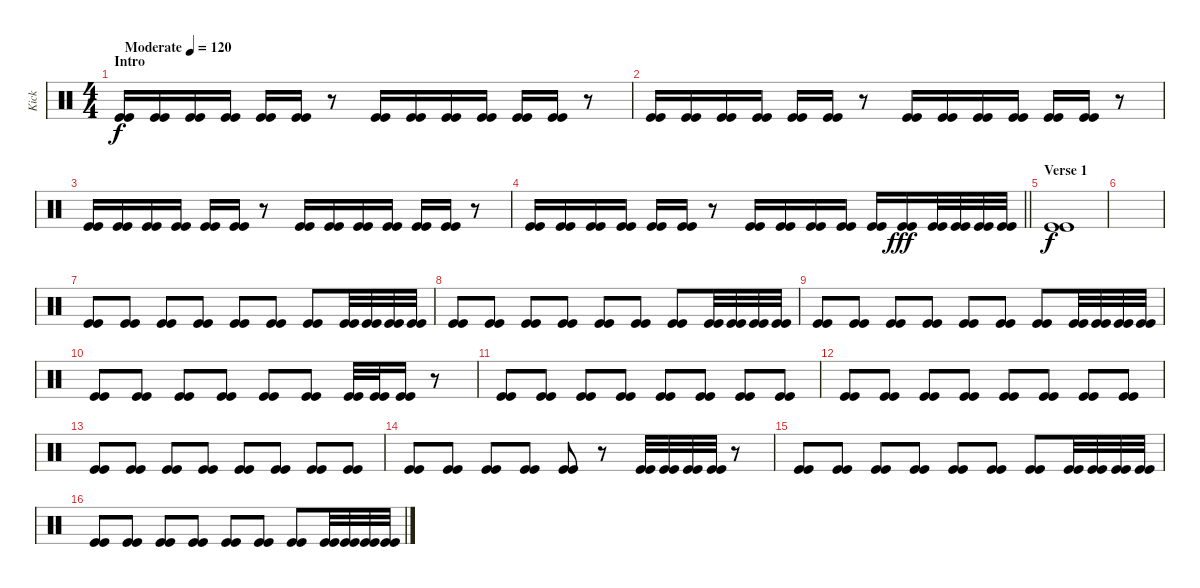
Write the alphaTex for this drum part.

\track ("Kick" "Kick") {instrument percussion}
\staff {score}
\articulation defaults
\ts (4 4)
\section ("" "Intro")
\tempo (120 "Moderate")
\clef neutral
\ks c
("Kick (hit)" "Kick (hit)").16{dy f} ("Kick (hit)" "Kick (hit)").16 ("Kick (hit)" "Kick (hit)").16 ("Kick (hit)" "Kick (hit)").16 ("Kick (hit)" "Kick (hit)").16 ("Kick (hit)" "Kick (hit)").16 r.8 ("Kick (hit)" "Kick (hit)").16 ("Kick (hit)" "Kick (hit)").16 ("Kick (hit)" "Kick (hit)").16 ("Kick (hit)" "Kick (hit)").16 ("Kick (hit)" "Kick (hit)").16 ("Kick (hit)" "Kick (hit)").16 r.8 |
("Kick (hit)" "Kick (hit)").16 ("Kick (hit)" "Kick (hit)").16 ("Kick (hit)" "Kick (hit)").16 ("Kick (hit)" "Kick (hit)").16 ("Kick (hit)" "Kick (hit)").16 ("Kick (hit)" "Kick (hit)").16 r.8 ("Kick (hit)" "Kick (hit)").16 ("Kick (hit)" "Kick (hit)").16 ("Kick (hit)" "Kick (hit)").16 ("Kick (hit)" "Kick (hit)").16 ("Kick (hit)" "Kick (hit)").16 ("Kick (hit)" "Kick (hit)").16 r.8 |
("Kick (hit)" "Kick (hit)").16 ("Kick (hit)" "Kick (hit)").16 ("Kick (hit)" "Kick (hit)").16 ("Kick (hit)" "Kick (hit)").16 ("Kick (hit)" "Kick (hit)").16 ("Kick (hit)" "Kick (hit)").16 r.8 ("Kick (hit)" "Kick (hit)").16 ("Kick (hit)" "Kick (hit)").16 ("Kick (hit)" "Kick (hit)").16 ("Kick (hit)" "Kick (hit)").16 ("Kick (hit)" "Kick (hit)").16 ("Kick (hit)" "Kick (hit)").16 r.8 |
\barLineRight lightlight
("Kick (hit)" "Kick (hit)").16 ("Kick (hit)" "Kick (hit)").16 ("Kick (hit)" "Kick (hit)").16 ("Kick (hit)" "Kick (hit)").16 ("Kick (hit)" "Kick (hit)").16 ("Kick (hit)" "Kick (hit)").16 r.8 ("Kick (hit)" "Kick (hit)").16 ("Kick (hit)" "Kick (hit)").16 ("Kick (hit)" "Kick (hit)").16 ("Kick (hit)" "Kick (hit)").16 ("Kick (hit)" "Kick (hit)").16 ("Kick (hit)" "Kick (hit)").16{dy fff} ("Kick (hit)" "Kick (hit)").32 ("Kick (hit)" "Kick (hit)").32 ("Kick (hit)" "Kick (hit)").32 ("Kick (hit)" "Kick (hit)").32 |
\section ("" "Verse 1")
("Kick (hit)" "Kick (hit)").1{dy f} |
|
("Kick (hit)" "Kick (hit)").8 ("Kick (hit)" "Kick (hit)").8 ("Kick (hit)" "Kick (hit)").8 ("Kick (hit)" "Kick (hit)").8 ("Kick (hit)" "Kick (hit)").8 ("Kick (hit)" "Kick (hit)").8 ("Kick (hit)" "Kick (hit)").8 ("Kick (hit)" "Kick (hit)").32 ("Kick (hit)" "Kick (hit)").32 ("Kick (hit)" "Kick (hit)").32 ("Kick (hit)" "Kick (hit)").32 |
("Kick (hit)" "Kick (hit)").8 ("Kick (hit)" "Kick (hit)").8 ("Kick (hit)" "Kick (hit)").8 ("Kick (hit)" "Kick (hit)").8 ("Kick (hit)" "Kick (hit)").8 ("Kick (hit)" "Kick (hit)").8 ("Kick (hit)" "Kick (hit)").8 ("Kick (hit)" "Kick (hit)").32 ("Kick (hit)" "Kick (hit)").32 ("Kick (hit)" "Kick (hit)").32 ("Kick (hit)" "Kick (hit)").32 |
("Kick (hit)" "Kick (hit)").8 ("Kick (hit)" "Kick (hit)").8 ("Kick (hit)" "Kick (hit)").8 ("Kick (hit)" "Kick (hit)").8 ("Kick (hit)" "Kick (hit)").8 ("Kick (hit)" "Kick (hit)").8 ("Kick (hit)" "Kick (hit)").8 ("Kick (hit)" "Kick (hit)").32 ("Kick (hit)" "Kick (hit)").32 ("Kick (hit)" "Kick (hit)").32 ("Kick (hit)" "Kick (hit)").32 |
("Kick (hit)" "Kick (hit)").8 ("Kick (hit)" "Kick (hit)").8 ("Kick (hit)" "Kick (hit)").8 ("Kick (hit)" "Kick (hit)").8 ("Kick (hit)" "Kick (hit)").8 ("Kick (hit)" "Kick (hit)").8 ("Kick (hit)" "Kick (hit)").32 ("Kick (hit)" "Kick (hit)").32 ("Kick (hit)" "Kick (hit)").16 r.8 |
("Kick (hit)" "Kick (hit)").8 ("Kick (hit)" "Kick (hit)").8 ("Kick (hit)" "Kick (hit)").8 ("Kick (hit)" "Kick (hit)").8 ("Kick (hit)" "Kick (hit)").8 ("Kick (hit)" "Kick (hit)").8 ("Kick (hit)" "Kick (hit)").8 ("Kick (hit)" "Kick (hit)").8 |
("Kick (hit)" "Kick (hit)").8 ("Kick (hit)" "Kick (hit)").8 ("Kick (hit)" "Kick (hit)").8 ("Kick (hit)" "Kick (hit)").8 ("Kick (hit)" "Kick (hit)").8 ("Kick (hit)" "Kick (hit)").8 ("Kick (hit)" "Kick (hit)").8 ("Kick (hit)" "Kick (hit)").8 |
("Kick (hit)" "Kick (hit)").8 ("Kick (hit)" "Kick (hit)").8 ("Kick (hit)" "Kick (hit)").8 ("Kick (hit)" "Kick (hit)").8 ("Kick (hit)" "Kick (hit)").8 ("Kick (hit)" "Kick (hit)").8 ("Kick (hit)" "Kick (hit)").8 ("Kick (hit)" "Kick (hit)").8 |
("Kick (hit)" "Kick (hit)").8 ("Kick (hit)" "Kick (hit)").8 ("Kick (hit)" "Kick (hit)").8 ("Kick (hit)" "Kick (hit)").8 ("Kick (hit)" "Kick (hit)").8 r.8 ("Kick (hit)" "Kick (hit)").32 ("Kick (hit)" "Kick (hit)").32 ("Kick (hit)" "Kick (hit)").32 ("Kick (hit)" "Kick (hit)").32 r.8 |
("Kick (hit)" "Kick (hit)").8 ("Kick (hit)" "Kick (hit)").8 ("Kick (hit)" "Kick (hit)").8 ("Kick (hit)" "Kick (hit)").8 ("Kick (hit)" "Kick (hit)").8 ("Kick (hit)" "Kick (hit)").8 ("Kick (hit)" "Kick (hit)").8 ("Kick (hit)" "Kick (hit)").32 ("Kick (hit)" "Kick (hit)").32 ("Kick (hit)" "Kick (hit)").32 ("Kick (hit)" "Kick (hit)").32 |
("Kick (hit)" "Kick (hit)").8 ("Kick (hit)" "Kick (hit)").8 ("Kick (hit)" "Kick (hit)").8 ("Kick (hit)" "Kick (hit)").8 ("Kick (hit)" "Kick (hit)").8 ("Kick (hit)" "Kick (hit)").8 ("Kick (hit)" "Kick (hit)").8 ("Kick (hit)" "Kick (hit)").32 ("Kick (hit)" "Kick (hit)").32 ("Kick (hit)" "Kick (hit)").32 ("Kick (hit)" "Kick (hit)").32
